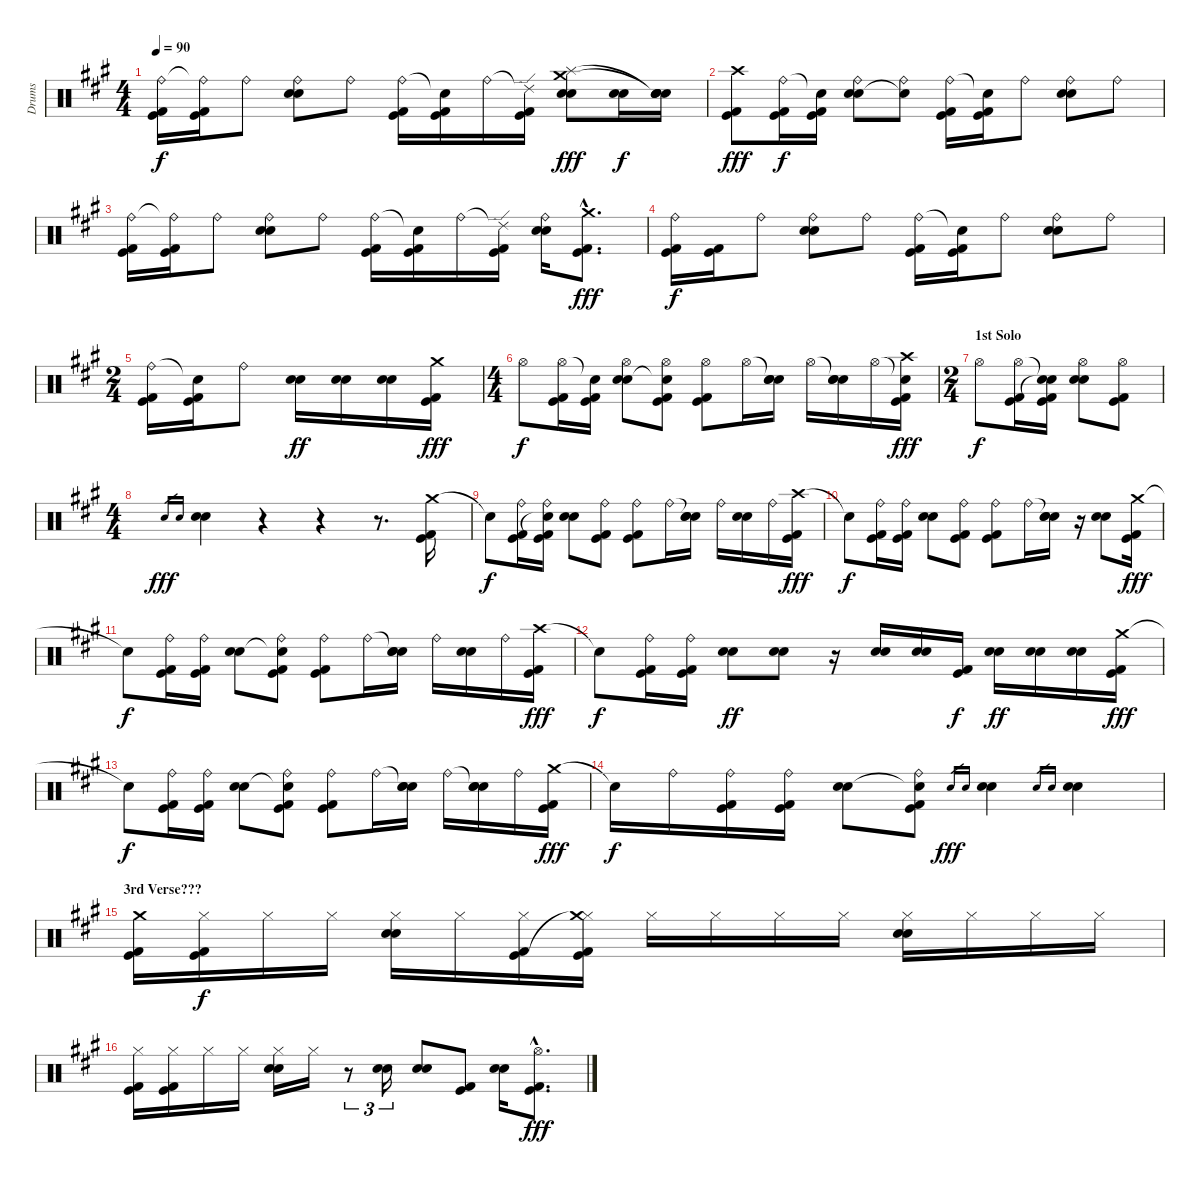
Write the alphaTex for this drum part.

\track ("Drums" "Drums") {instrument percussion}
\staff {score}
\articulation defaults
\ts (4 4)
\tempo 90
\clef neutral
\ks a
("Ride (bell)" "Kick (hit)" "Kick (hit) 2").16{dy f} ("Ride (bell)"{t} "Kick (hit)" "Kick (hit) 2").16 "Ride (bell)".8 ("Ride (bell)" "Electric Snare (hit)" "Snare (hit) 2").8 "Ride (bell)".8 ("Ride (bell)" "Kick (hit)" "Kick (hit) 2").16 ("Snare (hit)"{t} "Kick (hit)" "Kick (hit) 2").16 "Ride (bell)".16 ("Ride (edge) 2"{t} "Kick (hit)" "Kick (hit) 2").16 ("Electric Snare (hit)" "Snare (hit) 2" "Crash medium (hit)" "Splash (hit)").8{dy fff} ("Electric Snare (hit)" "Snare (hit) 2").16{dy f} ("Electric Snare (hit)" "Snare (hit) 2" "Snare (hit)"{t} "Snare (hit)"{t}).16 |
("Crash high (hit)" "Kick (hit)" "Kick (hit) 2").8{dy fff} ("Ride (bell)" "Kick (hit)" "Kick (hit) 2").16{dy f} ("Snare (hit)"{t} "Kick (hit)" "Kick (hit) 2").16 ("Ride (bell)" "Electric Snare (hit)" "Snare (hit) 2").8 ("Ride (bell)" "Snare (hit)"{t}).8 ("Ride (bell)" "Kick (hit)" "Kick (hit) 2").16 ("Snare (hit)"{t} "Kick (hit)" "Kick (hit) 2").16 "Ride (bell)".8 ("Ride (bell)" "Electric Snare (hit)" "Snare (hit) 2").8 "Ride (bell)".8 |
("Ride (bell)" "Kick (hit)" "Kick (hit) 2").16 ("Ride (bell)"{t} "Kick (hit)" "Kick (hit) 2").16 "Ride (bell)".8 ("Ride (bell)" "Electric Snare (hit)" "Snare (hit) 2").8 "Ride (bell)".8 ("Ride (bell)" "Kick (hit)" "Kick (hit) 2").16 ("Snare (hit)"{t} "Kick (hit)" "Kick (hit) 2").16 "Ride (bell)".16 ("Ride (edge) 2"{t} "Kick (hit)" "Kick (hit) 2").16 ("Ride (bell)" "Electric Snare (hit)" "Snare (hit) 2").16 ("Crash medium (hit)"{hac} "Kick (hit)"{hac} "Kick (hit) 2"{hac}).8{d dy fff} |
("Ride (bell)" "Kick (hit)" "Kick (hit) 2").16{dy f} ("Kick (hit)" "Kick (hit) 2").16 "Ride (bell)".8 ("Ride (bell)" "Electric Snare (hit)" "Snare (hit) 2").8 "Ride (bell)".8 ("Ride (bell)" "Kick (hit)" "Kick (hit) 2").16 ("Snare (hit)"{t} "Kick (hit)" "Kick (hit) 2").16 "Ride (bell)".8 ("Ride (bell)" "Electric Snare (hit)" "Snare (hit) 2").8 "Ride (bell)".8 |
\ts (2 4)
("Ride (bell)" "Kick (hit)" "Kick (hit) 2").16 ("Snare (hit)"{t} "Kick (hit)" "Kick (hit) 2").16 "Ride (bell)".8 ("Electric Snare (hit)" "Snare (hit) 2").16{dy ff} ("Electric Snare (hit)" "Snare (hit) 2").16 ("Electric Snare (hit)" "Snare (hit) 2").16 ("Crash medium (hit)" "Kick (hit)" "Kick (hit) 2").16{dy fff} |
\ts (4 4)
"Hi-Hat (open)".8{dy f} ("Hi-Hat (open)" "Kick (hit)" "Kick (hit) 2").16 ("Snare (hit)"{t} "Kick (hit)" "Kick (hit) 2").16 ("Hi-Hat (open)" "Electric Snare (hit)" "Snare (hit) 2").8 ("Hi-Hat (open)" "Snare (hit)"{t} "Kick (hit)" "Kick (hit) 2").8 ("Hi-Hat (open)" "Kick (hit)" "Kick (hit) 2").8 "Hi-Hat (open)".16 ("Snare (hit)"{t} "Electric Snare (hit)" "Snare (hit) 2").16 "Hi-Hat (open)".16 ("Snare (hit)"{t} "Electric Snare (hit)" "Snare (hit) 2").16 "Hi-Hat (open)".16 ("Snare (hit)"{t} "Crash high (hit)" "Kick (hit)" "Kick (hit) 2").16{dy fff} |
\ts (2 4)
\section ("" "1st Solo")
"Hi-Hat (open)".8{dy f} ("Hi-Hat (open)" "Kick (hit)" "Kick (hit) 2").16 ("Snare (hit)"{t} "Snare (hit)"{t} "Kick (hit)" "Kick (hit) 2").16 ("Hi-Hat (open)" "Electric Snare (hit)" "Snare (hit) 2").8 ("Hi-Hat (open)" "Kick (hit)" "Kick (hit) 2").8 |
\ts (4 4)
"Electric Snare (hit)".16{gr dy fff} "Snare (hit) 2".16{gr} ("Electric Snare (hit)" "Snare (hit) 2").4 r.4 r.4 r.8{d} ("Crash medium (hit)" "Kick (hit)" "Kick (hit) 2").16 |
"Snare (hit)"{t}.8{dy f} ("Ride (bell)" "Kick (hit)" "Kick (hit) 2").16 ("Ride (bell)" "Snare (hit)"{t} "Kick (hit)" "Kick (hit) 2").16 ("Electric Snare (hit)" "Snare (hit) 2").8 ("Ride (bell)" "Kick (hit)" "Kick (hit) 2").8 ("Ride (bell)" "Kick (hit)" "Kick (hit) 2").8 "Ride (bell)".16 ("Snare (hit)"{t} "Electric Snare (hit)" "Snare (hit) 2").16 "Ride (bell)".16 ("Electric Snare (hit)" "Snare (hit) 2").16 "Ride (bell)".16 ("Crash high (hit)" "Kick (hit)" "Kick (hit) 2").16{dy fff} |
"Snare (hit)"{t}.8{dy f} ("Ride (bell)" "Kick (hit)" "Kick (hit) 2").16 ("Ride (bell)" "Kick (hit)" "Kick (hit) 2").16 ("Electric Snare (hit)" "Snare (hit) 2").8 ("Ride (bell)" "Kick (hit)" "Kick (hit) 2").8 ("Ride (bell)" "Kick (hit)" "Kick (hit) 2").8 "Ride (bell)".16 ("Snare (hit)"{t} "Electric Snare (hit)" "Snare (hit) 2").16 r.16 ("Electric Snare (hit)" "Snare (hit) 2").8 ("Crash medium (hit)" "Kick (hit)" "Kick (hit) 2").16{dy fff} |
"Snare (hit)"{t}.8{dy f} ("Ride (bell)" "Kick (hit)" "Kick (hit) 2").16 ("Ride (bell)" "Kick (hit)" "Kick (hit) 2").16 ("Electric Snare (hit)" "Snare (hit) 2").8 ("Ride (bell)" "Snare (hit)"{t} "Kick (hit)" "Kick (hit) 2").8 ("Ride (bell)" "Kick (hit)" "Kick (hit) 2").8 "Ride (bell)".16 ("Snare (hit)"{t} "Electric Snare (hit)" "Snare (hit) 2").16 "Ride (bell)".16 ("Electric Snare (hit)" "Snare (hit) 2").16 "Ride (bell)".16 ("Crash high (hit)" "Kick (hit)" "Kick (hit) 2").16{dy fff} |
"Snare (hit)"{t}.8{dy f} ("Ride (bell)" "Kick (hit)" "Kick (hit) 2").16 ("Ride (bell)" "Kick (hit)" "Kick (hit) 2").16 ("Electric Snare (hit)" "Snare (hit) 2").8{dy ff} ("Electric Snare (hit)" "Snare (hit) 2").8 r.16 ("Electric Snare (hit)" "Snare (hit) 2").16 ("Electric Snare (hit)" "Snare (hit) 2").16 ("Kick (hit)" "Kick (hit) 2").16{dy f} ("Electric Snare (hit)" "Snare (hit) 2").16{dy ff} ("Electric Snare (hit)" "Snare (hit) 2").16 ("Electric Snare (hit)" "Snare (hit) 2").16 ("Crash medium (hit)" "Kick (hit)" "Kick (hit) 2").16{dy fff} |
"Snare (hit)"{t}.8{dy f} ("Ride (bell)" "Kick (hit)" "Kick (hit) 2").16 ("Ride (bell)" "Kick (hit)" "Kick (hit) 2").16 ("Electric Snare (hit)" "Snare (hit) 2").8 ("Ride (bell)" "Snare (hit)"{t} "Kick (hit)" "Kick (hit) 2").8 ("Ride (bell)" "Kick (hit)" "Kick (hit) 2").8 "Ride (bell)".16 ("Snare (hit)"{t} "Electric Snare (hit)" "Snare (hit) 2").16 "Ride (bell)".16 ("Snare (hit)"{t} "Electric Snare (hit)" "Snare (hit) 2").16 "Ride (bell)".16 ("Crash medium (hit)" "Kick (hit)" "Kick (hit) 2").16{dy fff} |
"Snare (hit)"{t}.16{dy f} "Ride (bell)".16 ("Ride (bell)" "Kick (hit)" "Kick (hit) 2").16 ("Ride (bell)" "Kick (hit)" "Kick (hit) 2").16 ("Electric Snare (hit)" "Snare (hit) 2").8 ("Ride (bell)" "Snare (hit)"{t} "Kick (hit)" "Kick (hit) 2").8 "Electric Snare (hit)".16{gr dy fff} "Snare (hit) 2".16{gr} ("Electric Snare (hit)" "Snare (hit) 2").4 "Electric Snare (hit)".16{gr} "Snare (hit) 2".16{gr} ("Electric Snare (hit)" "Snare (hit) 2").4 |
\section ("" "3rd Verse???")
("Crash medium (hit)" "Kick (hit)" "Kick (hit) 2").16 ("Hi-Hat (closed)" "Kick (hit)" "Kick (hit) 2").16{dy f} "Hi-Hat (closed)".16 "Hi-Hat (closed)".16 ("Hi-Hat (closed)" "Electric Snare (hit)" "Snare (hit) 2").16 "Hi-Hat (closed)".16 ("Hi-Hat (closed)" "Kick (hit)" "Kick (hit) 2").16 ("Hi-Hat (closed)" "Crash medium (hit)"{t} "Kick (hit)" "Kick (hit) 2").16 "Hi-Hat (closed)".16 "Hi-Hat (closed)".16 "Hi-Hat (closed)".16 "Hi-Hat (closed)".16 ("Hi-Hat (closed)" "Electric Snare (hit)" "Snare (hit) 2").16 "Hi-Hat (closed)".16 "Hi-Hat (closed)".16 "Hi-Hat (closed)".16 |
("Hi-Hat (closed)" "Kick (hit)" "Kick (hit) 2").16 ("Hi-Hat (closed)" "Kick (hit)" "Kick (hit) 2").16 "Hi-Hat (closed)".16 "Hi-Hat (closed)".16 ("Hi-Hat (closed)" "Electric Snare (hit)" "Snare (hit) 2").16 "Hi-Hat (closed)".16 r.8{tu (3 2)} ("Electric Snare (hit)" "Snare (hit) 2").16{tu (3 2)} ("Electric Snare (hit)" "Snare (hit) 2").8 ("Kick (hit)" "Kick (hit) 2").8 ("Electric Snare (hit)" "Snare (hit) 2").16 ("Hi-Hat (open)"{hac} "Kick (hit)"{hac} "Kick (hit) 2"{hac}).8{d dy fff}
